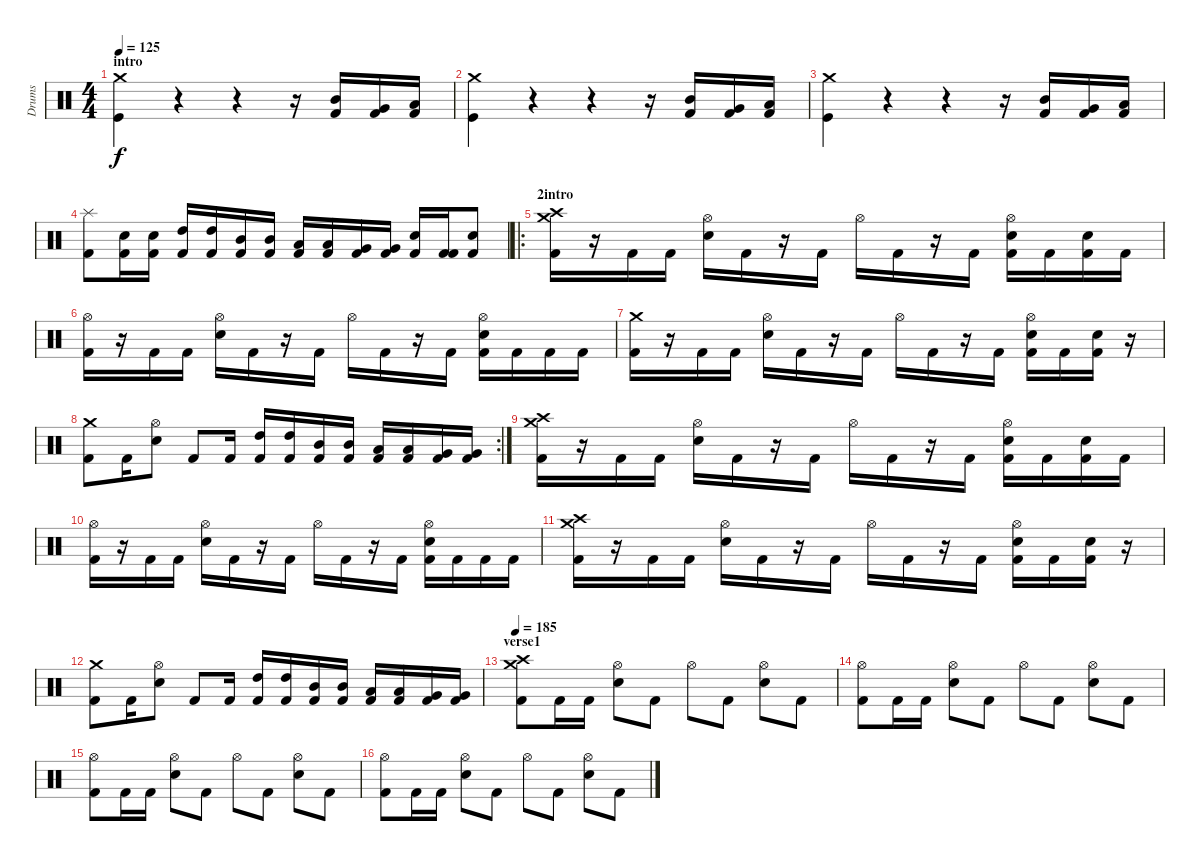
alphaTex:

\track ("Drums" "Drums") {instrument percussion}
\staff {score}
\articulation defaults
\ts (4 4)
\section ("" "intro")
\tempo 125
\clef neutral
\ks c
("Crash medium (hit)" "Kick (hit)").4{dy f} r.4 r.4 r.16 ("Mid Tom (hit)" "Kick (hit) 2").16 ("Very Low Tom (hit)" "Kick (hit) 2").16 ("Low Floor Tom (hit)" "Kick (hit) 2").16 |
("Crash medium (hit)" "Kick (hit)").4 r.4 r.4 r.16 ("Mid Tom (hit)" "Kick (hit) 2").16 ("Very Low Tom (hit)" "Kick (hit) 2").16 ("Low Floor Tom (hit)" "Kick (hit) 2").16 |
("Crash medium (hit)" "Kick (hit)").4 r.4 r.4 r.16 ("Mid Tom (hit)" "Kick (hit) 2").16 ("Very Low Tom (hit)" "Kick (hit) 2").16 ("Low Floor Tom (hit)" "Kick (hit) 2").16 |
("Splash (hit)" "Kick (hit) 2").8 ("Electric Snare (hit)" "Kick (hit) 2").16 ("Electric Snare (hit)" "Kick (hit) 2").16 ("High Tom (hit)" "Kick (hit) 2").16 ("High Tom (hit)" "Kick (hit) 2").16 ("Mid Tom (hit)" "Kick (hit) 2").16 ("Mid Tom (hit)" "Kick (hit) 2").16 ("Low Tom (hit)" "Kick (hit) 2").16 ("Low Tom (hit)" "Kick (hit) 2").16 ("Very Low Tom (hit)" "Kick (hit) 2").16 ("Very Low Tom (hit)" "Kick (hit) 2").16 ("Electric Snare (hit)" "Kick (hit) 2").16 ("Kick (hit) 2" "Kick (hit) 2").16 ("Electric Snare (hit)" "Kick (hit) 2").8 |
\ro
\section ("" "2intro")
("Crash medium (hit)" "Crash high (hit)" "Kick (hit) 2").16 r.16 "Kick (hit) 2".16 "Kick (hit) 2".16 ("Hi-Hat (open)" "Electric Snare (hit)").16 "Kick (hit) 2".16 r.16 "Kick (hit) 2".16 "Hi-Hat (open)".16 "Kick (hit) 2".16 r.16 "Kick (hit) 2".16 ("Hi-Hat (open)" "Electric Snare (hit)" "Kick (hit) 2").16 "Kick (hit) 2".16 ("Electric Snare (hit)" "Kick (hit) 2").16 "Kick (hit) 2".16 |
("Hi-Hat (open)" "Kick (hit) 2").16 r.16 "Kick (hit) 2".16 "Kick (hit) 2".16 ("Hi-Hat (open)" "Electric Snare (hit)").16 "Kick (hit) 2".16 r.16 "Kick (hit) 2".16 "Hi-Hat (open)".16 "Kick (hit) 2".16 r.16 "Kick (hit) 2".16 ("Hi-Hat (open)" "Electric Snare (hit)" "Kick (hit) 2").16 "Kick (hit) 2".16 "Kick (hit) 2".16 "Kick (hit) 2".16 |
("Crash medium (hit)" "Kick (hit) 2").16 r.16 "Kick (hit) 2".16 "Kick (hit) 2".16 ("Hi-Hat (open)" "Electric Snare (hit)").16 "Kick (hit) 2".16 r.16 "Kick (hit) 2".16 "Hi-Hat (open)".16 "Kick (hit) 2".16 r.16 "Kick (hit) 2".16 ("Hi-Hat (open)" "Electric Snare (hit)" "Kick (hit) 2").16 "Kick (hit) 2".16 ("Electric Snare (hit)" "Kick (hit) 2").16 r.16 |
\rc 2
("Crash medium (hit)" "Kick (hit) 2").8 "Kick (hit) 2".16 ("Hi-Hat (open)" "Electric Snare (hit)").8 "Kick (hit) 2".8 "Kick (hit) 2".16 ("High Tom (hit)" "Kick (hit) 2").16 ("High Tom (hit)" "Kick (hit) 2").16 ("Mid Tom (hit)" "Kick (hit) 2").16 ("Mid Tom (hit)" "Kick (hit) 2").16 ("Low Tom (hit)" "Kick (hit) 2").16 ("Low Tom (hit)" "Kick (hit) 2").16 ("Very Low Tom (hit)" "Kick (hit) 2").16 ("Very Low Tom (hit)" "Kick (hit) 2").16 |
("Crash medium (hit)" "Crash high (hit)" "Kick (hit) 2").16 r.16 "Kick (hit) 2".16 "Kick (hit) 2".16 ("Hi-Hat (open)" "Electric Snare (hit)").16 "Kick (hit) 2".16 r.16 "Kick (hit) 2".16 "Hi-Hat (open)".16 "Kick (hit) 2".16 r.16 "Kick (hit) 2".16 ("Hi-Hat (open)" "Electric Snare (hit)" "Kick (hit) 2").16 "Kick (hit) 2".16 ("Electric Snare (hit)" "Kick (hit) 2").16 "Kick (hit) 2".16 |
("Hi-Hat (open)" "Kick (hit) 2").16 r.16 "Kick (hit) 2".16 "Kick (hit) 2".16 ("Hi-Hat (open)" "Electric Snare (hit)").16 "Kick (hit) 2".16 r.16 "Kick (hit) 2".16 "Hi-Hat (open)".16 "Kick (hit) 2".16 r.16 "Kick (hit) 2".16 ("Hi-Hat (open)" "Electric Snare (hit)" "Kick (hit) 2").16 "Kick (hit) 2".16 "Kick (hit) 2".16 "Kick (hit) 2".16 |
("Crash medium (hit)" "Crash high (hit)" "Kick (hit) 2").16 r.16 "Kick (hit) 2".16 "Kick (hit) 2".16 ("Hi-Hat (open)" "Electric Snare (hit)").16 "Kick (hit) 2".16 r.16 "Kick (hit) 2".16 "Hi-Hat (open)".16 "Kick (hit) 2".16 r.16 "Kick (hit) 2".16 ("Hi-Hat (open)" "Electric Snare (hit)" "Kick (hit) 2").16 "Kick (hit) 2".16 ("Electric Snare (hit)" "Kick (hit) 2").16 r.16 |
("Crash medium (hit)" "Kick (hit) 2").8 "Kick (hit) 2".16 ("Hi-Hat (open)" "Electric Snare (hit)").8 "Kick (hit) 2".8 "Kick (hit) 2".16 ("High Tom (hit)" "Kick (hit) 2").16 ("High Tom (hit)" "Kick (hit) 2").16 ("Mid Tom (hit)" "Kick (hit) 2").16 ("Mid Tom (hit)" "Kick (hit) 2").16 ("Low Tom (hit)" "Kick (hit) 2").16 ("Low Tom (hit)" "Kick (hit) 2").16 ("Very Low Tom (hit)" "Kick (hit) 2").16 ("Very Low Tom (hit)" "Kick (hit) 2").16 |
\section ("" "verse1")
\tempo 185
("Crash medium (hit)" "Crash high (hit)" "Kick (hit) 2").8 "Kick (hit) 2".16 "Kick (hit) 2".16 ("Hi-Hat (open)" "Electric Snare (hit)").8 "Kick (hit) 2".8 "Hi-Hat (open)".8 "Kick (hit) 2".8 ("Hi-Hat (open)" "Electric Snare (hit)").8 "Kick (hit) 2".8 |
("Hi-Hat (open)" "Kick (hit) 2").8 "Kick (hit) 2".16 "Kick (hit) 2".16 ("Hi-Hat (open)" "Electric Snare (hit)").8 "Kick (hit) 2".8 "Hi-Hat (open)".8 "Kick (hit) 2".8 ("Hi-Hat (open)" "Electric Snare (hit)").8 "Kick (hit) 2".8 |
("Hi-Hat (open)" "Kick (hit) 2").8 "Kick (hit) 2".16 "Kick (hit) 2".16 ("Hi-Hat (open)" "Electric Snare (hit)").8 "Kick (hit) 2".8 "Hi-Hat (open)".8 "Kick (hit) 2".8 ("Hi-Hat (open)" "Electric Snare (hit)").8 "Kick (hit) 2".8 |
("Hi-Hat (open)" "Kick (hit) 2").8 "Kick (hit) 2".16 "Kick (hit) 2".16 ("Hi-Hat (open)" "Electric Snare (hit)").8 "Kick (hit) 2".8 "Hi-Hat (open)".8 "Kick (hit) 2".8 ("Hi-Hat (open)" "Electric Snare (hit)").8 "Kick (hit) 2".8
